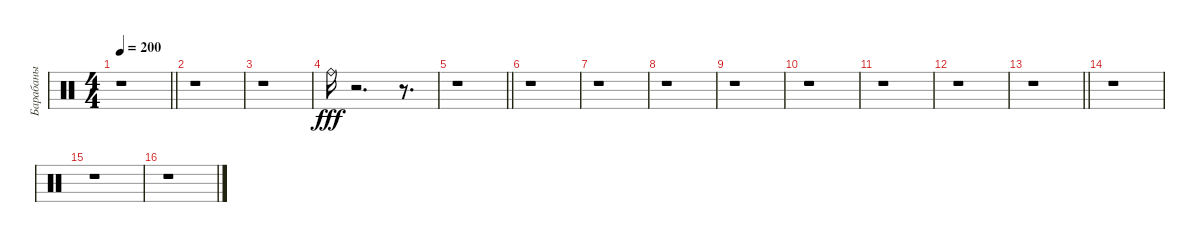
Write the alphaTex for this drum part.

\track ("Барабаны" "Барабаны") {instrument percussion}
\staff {score}
\articulation defaults
\ts (4 4)
\tempo 200
\clef neutral
\barLineRight lightlight
\ks c
r.1{dy fff} |
\section ("" " ")
r.1 |
r.1 |
"Ride (bell)".16 r.2{d} r.8{d} |
\barLineRight lightlight
r.1 |
\section ("" " ")
r.1 |
r.1 |
r.1 |
r.1 |
r.1 |
r.1 |
r.1 |
\barLineRight lightlight
r.1 |
\section ("" " ")
r.1 |
r.1 |
r.1
